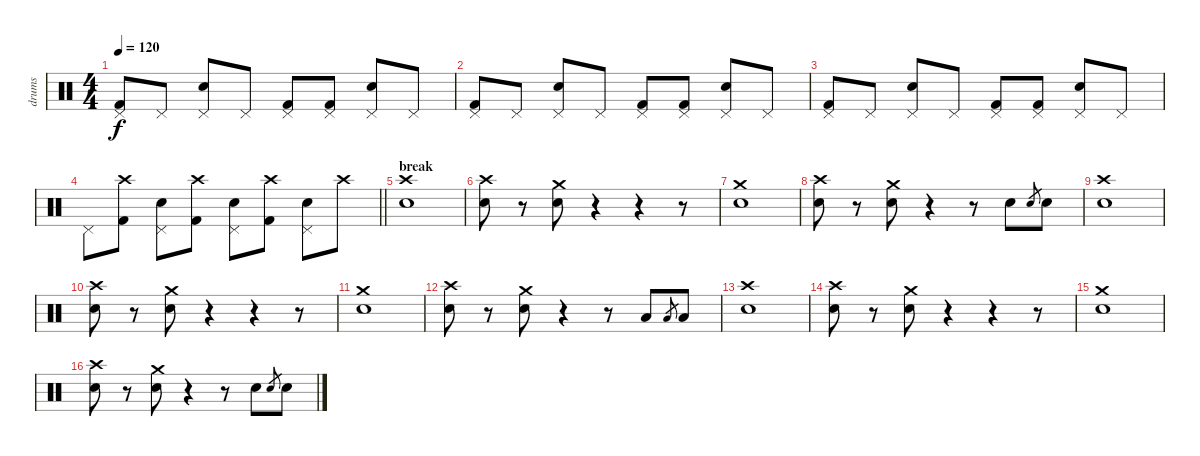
\track ("drums" "drums") {instrument percussion}
\staff {score}
\articulation defaults
\ts (4 4)
\tempo 120
\clef neutral
\ks c
("Kick (hit) 2" "Pedal Hi-Hat (hit)").8{dy f} "Pedal Hi-Hat (hit)".8 ("Electric Snare (hit)" "Pedal Hi-Hat (hit)").8 "Pedal Hi-Hat (hit)".8 ("Kick (hit) 2" "Pedal Hi-Hat (hit)").8 ("Kick (hit) 2" "Pedal Hi-Hat (hit)").8 ("Electric Snare (hit)" "Pedal Hi-Hat (hit)").8 "Pedal Hi-Hat (hit)".8 |
("Kick (hit) 2" "Pedal Hi-Hat (hit)").8 "Pedal Hi-Hat (hit)".8 ("Electric Snare (hit)" "Pedal Hi-Hat (hit)").8 "Pedal Hi-Hat (hit)".8 ("Kick (hit) 2" "Pedal Hi-Hat (hit)").8 ("Kick (hit) 2" "Pedal Hi-Hat (hit)").8 ("Electric Snare (hit)" "Pedal Hi-Hat (hit)").8 "Pedal Hi-Hat (hit)".8 |
("Kick (hit) 2" "Pedal Hi-Hat (hit)").8 "Pedal Hi-Hat (hit)".8 ("Electric Snare (hit)" "Pedal Hi-Hat (hit)").8 "Pedal Hi-Hat (hit)".8 ("Kick (hit) 2" "Pedal Hi-Hat (hit)").8 ("Kick (hit) 2" "Pedal Hi-Hat (hit)").8 ("Electric Snare (hit)" "Pedal Hi-Hat (hit)").8 "Pedal Hi-Hat (hit)".8 |
\barLineRight lightlight "Pedal Hi-Hat (hit)".8
("Kick (hit) 2" "Crash high (hit)").8 ("Electric Snare (hit)" "Pedal Hi-Hat (hit)").8 ("Kick (hit) 2" "Crash high (hit)").8 ("Electric Snare (hit)" "Pedal Hi-Hat (hit)").8 ("Kick (hit) 2" "Crash high (hit)").8 ("Electric Snare (hit)" "Pedal Hi-Hat (hit)").8 "Crash high (hit)".8 |
\section ("" "break")
("Electric Snare (hit)" "Crash high (hit)").1 |
("Electric Snare (hit)" "Crash high (hit)").8 r.8 ("Electric Snare (hit)" "Crash medium (hit)").8 r.4 r.4 r.8 |
("Electric Snare (hit)" "Crash medium (hit)").1 |
("Electric Snare (hit)" "Crash high (hit)").8 r.8 ("Electric Snare (hit)" "Crash medium (hit)").8 r.4 r.8 "Electric Snare (hit)".8 "Electric Snare (hit)".8{gr} "Electric Snare (hit)".8 |
("Electric Snare (hit)" "Crash high (hit)").1 |
("Electric Snare (hit)" "Crash high (hit)").8 r.8 ("Electric Snare (hit)" "Crash medium (hit)").8 r.4 r.4 r.8 |
("Electric Snare (hit)" "Crash medium (hit)").1 |
("Electric Snare (hit)" "Crash high (hit)").8 r.8 ("Electric Snare (hit)" "Crash medium (hit)").8 r.4 r.8 "Low Tom (hit)".8 "Low Tom (hit)".8{gr} "Low Tom (hit)".8 |
("Electric Snare (hit)" "Crash high (hit)").1 |
("Electric Snare (hit)" "Crash high (hit)").8 r.8 ("Electric Snare (hit)" "Crash medium (hit)").8 r.4 r.4 r.8 |
("Electric Snare (hit)" "Crash medium (hit)").1 |
("Electric Snare (hit)" "Crash high (hit)").8 r.8 ("Electric Snare (hit)" "Crash medium (hit)").8 r.4 r.8 "Electric Snare (hit)".8 "Electric Snare (hit)".8{gr} "Electric Snare (hit)".8
